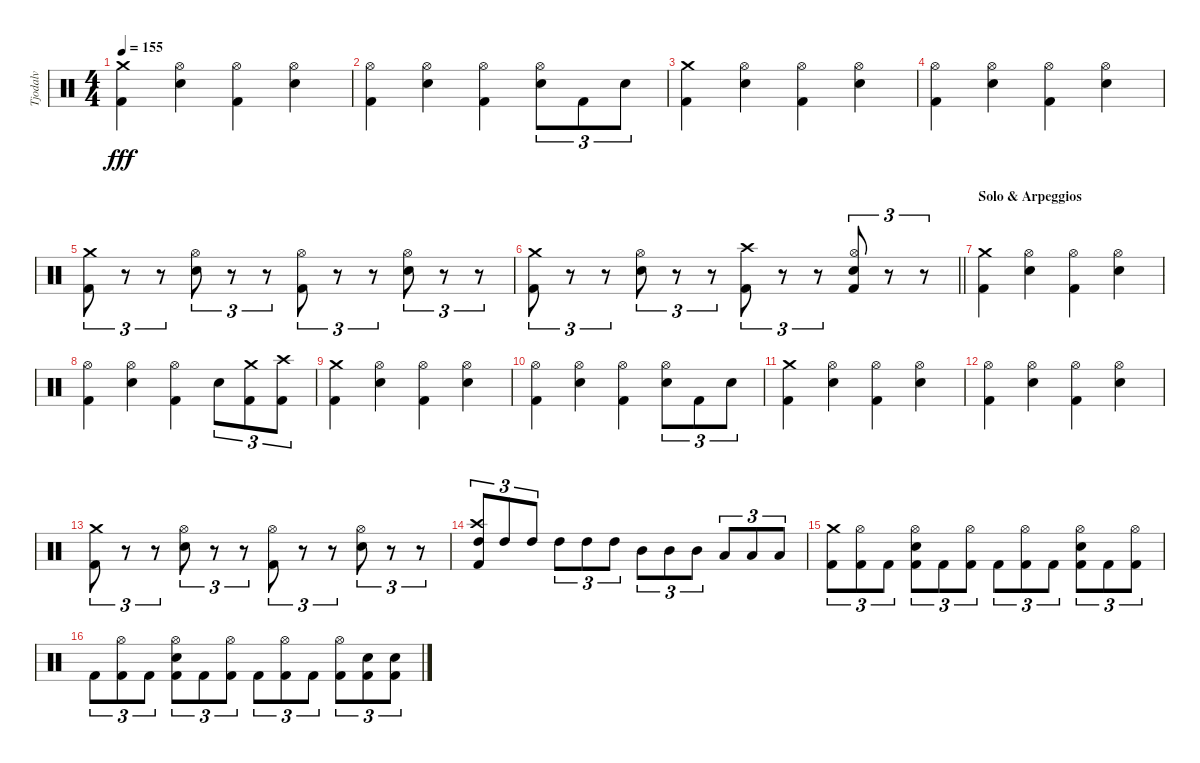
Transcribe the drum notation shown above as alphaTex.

\track ("Tjodalv" "Tjodalv") {instrument percussion}
\staff {score}
\articulation defaults
\ts (4 4)
\tempo 155
\clef neutral
\ks c
("Crash medium (hit)" "Kick (hit) 2").4{dy fff} ("Hi-Hat (open)" "Snare (hit) 2").4 ("Hi-Hat (open)" "Kick (hit) 2").4 ("Hi-Hat (open)" "Snare (hit) 2").4 |
("Hi-Hat (open)" "Kick (hit) 2").4 ("Hi-Hat (open)" "Snare (hit) 2").4 ("Hi-Hat (open)" "Kick (hit) 2").4 ("Hi-Hat (open)" "Snare (hit) 2").8{tu (3 2)} "Kick (hit) 2".8{tu (3 2)} "Snare (hit) 2".8{tu (3 2)} |
("Crash medium (hit)" "Kick (hit) 2").4 ("Hi-Hat (open)" "Snare (hit) 2").4 ("Hi-Hat (open)" "Kick (hit) 2").4 ("Hi-Hat (open)" "Snare (hit) 2").4 |
("Hi-Hat (open)" "Kick (hit) 2").4 ("Hi-Hat (open)" "Snare (hit) 2").4 ("Hi-Hat (open)" "Kick (hit) 2").4 ("Hi-Hat (open)" "Snare (hit) 2").4 |
("Crash medium (hit)" "Kick (hit) 2").8{tu (3 2)} r.8{tu (3 2)} r.8{tu (3 2)} ("Hi-Hat (open)" "Snare (hit) 2").8{tu (3 2)} r.8{tu (3 2)} r.8{tu (3 2)} ("Hi-Hat (open)" "Kick (hit) 2").8{tu (3 2)} r.8{tu (3 2)} r.8{tu (3 2)} ("Hi-Hat (open)" "Snare (hit) 2").8{tu (3 2)} r.8{tu (3 2)} r.8{tu (3 2)} |
\barLineRight lightlight
("Crash medium (hit)" "Kick (hit) 2").8{tu (3 2)} r.8{tu (3 2)} r.8{tu (3 2)} ("Hi-Hat (open)" "Snare (hit) 2").8{tu (3 2)} r.8{tu (3 2)} r.8{tu (3 2)} ("Crash high (hit)" "Kick (hit) 2").8{tu (3 2)} r.8{tu (3 2)} r.8{tu (3 2)} ("Hi-Hat (open)" "Snare (hit) 2" "Kick (hit) 2").8{tu (3 2)} r.8{tu (3 2)} r.8{tu (3 2)} |
\section ("" "Solo & Arpeggios")
("Crash medium (hit)" "Kick (hit) 2").4 ("Hi-Hat (open)" "Snare (hit) 2").4 ("Hi-Hat (open)" "Kick (hit) 2").4 ("Hi-Hat (open)" "Snare (hit) 2").4 |
("Hi-Hat (open)" "Kick (hit) 2").4 ("Hi-Hat (open)" "Snare (hit) 2").4 ("Hi-Hat (open)" "Kick (hit) 2").4 "Snare (hit) 2".8{tu (3 2)} ("Crash medium (hit)" "Kick (hit) 2").8{tu (3 2)} ("Crash high (hit)" "Kick (hit) 2").8{tu (3 2)} |
("Crash medium (hit)" "Kick (hit) 2").4 ("Hi-Hat (open)" "Snare (hit) 2").4 ("Hi-Hat (open)" "Kick (hit) 2").4 ("Hi-Hat (open)" "Snare (hit) 2").4 |
("Hi-Hat (open)" "Kick (hit) 2").4 ("Hi-Hat (open)" "Snare (hit) 2").4 ("Hi-Hat (open)" "Kick (hit) 2").4 ("Hi-Hat (open)" "Snare (hit) 2").8{tu (3 2)} "Kick (hit) 2".8{tu (3 2)} "Snare (hit) 2".8{tu (3 2)} |
("Crash medium (hit)" "Kick (hit) 2").4 ("Hi-Hat (open)" "Snare (hit) 2").4 ("Hi-Hat (open)" "Kick (hit) 2").4 ("Hi-Hat (open)" "Snare (hit) 2").4 |
("Hi-Hat (open)" "Kick (hit) 2").4 ("Hi-Hat (open)" "Snare (hit) 2").4 ("Hi-Hat (open)" "Kick (hit) 2").4 ("Hi-Hat (open)" "Snare (hit) 2").4 |
("Crash medium (hit)" "Kick (hit) 2").8{tu (3 2)} r.8{tu (3 2)} r.8{tu (3 2)} ("Hi-Hat (open)" "Snare (hit) 2").8{tu (3 2)} r.8{tu (3 2)} r.8{tu (3 2)} ("Hi-Hat (open)" "Kick (hit) 2").8{tu (3 2)} r.8{tu (3 2)} r.8{tu (3 2)} ("Hi-Hat (open)" "Snare (hit) 2").8{tu (3 2)} r.8{tu (3 2)} r.8{tu (3 2)} |
("Crash high (hit)" "High Tom (hit)" "Kick (hit) 2").8{tu (3 2)} "High Tom (hit)".8{tu (3 2)} "High Tom (hit)".8{tu (3 2)} "High Tom (hit)".8{tu (3 2)} "High Tom (hit)".8{tu (3 2)} "High Tom (hit)".8{tu (3 2)} "Mid Tom (hit)".8{tu (3 2)} "Mid Tom (hit)".8{tu (3 2)} "Mid Tom (hit)".8{tu (3 2)} "Low Tom (hit)".8{tu (3 2)} "Low Tom (hit)".8{tu (3 2)} "Low Tom (hit)".8{tu (3 2)} |
("Crash medium (hit)" "Kick (hit) 2").8{tu (3 2)} ("Hi-Hat (open)" "Kick (hit) 2").8{tu (3 2)} "Kick (hit) 2".8{tu (3 2)} ("Hi-Hat (open)" "Snare (hit) 2" "Kick (hit) 2").8{tu (3 2)} "Kick (hit) 2".8{tu (3 2)} ("Hi-Hat (open)" "Kick (hit) 2").8{tu (3 2)} "Kick (hit) 2".8{tu (3 2)} ("Hi-Hat (open)" "Kick (hit) 2").8{tu (3 2)} "Kick (hit) 2".8{tu (3 2)} ("Hi-Hat (open)" "Snare (hit) 2" "Kick (hit) 2").8{tu (3 2)} "Kick (hit) 2".8{tu (3 2)} ("Hi-Hat (open)" "Kick (hit) 2").8{tu (3 2)} |
"Kick (hit) 2".8{tu (3 2)} ("Hi-Hat (open)" "Kick (hit) 2").8{tu (3 2)} "Kick (hit) 2".8{tu (3 2)} ("Hi-Hat (open)" "Snare (hit) 2" "Kick (hit) 2").8{tu (3 2)} "Kick (hit) 2".8{tu (3 2)} ("Hi-Hat (open)" "Kick (hit) 2").8{tu (3 2)} "Kick (hit) 2".8{tu (3 2)} ("Hi-Hat (open)" "Kick (hit) 2").8{tu (3 2)} "Kick (hit) 2".8{tu (3 2)} ("Hi-Hat (open)" "Kick (hit) 2").8{tu (3 2)} ("Snare (hit) 2" "Kick (hit) 2").8{tu (3 2)} ("Snare (hit) 2" "Kick (hit) 2").8{tu (3 2)}
